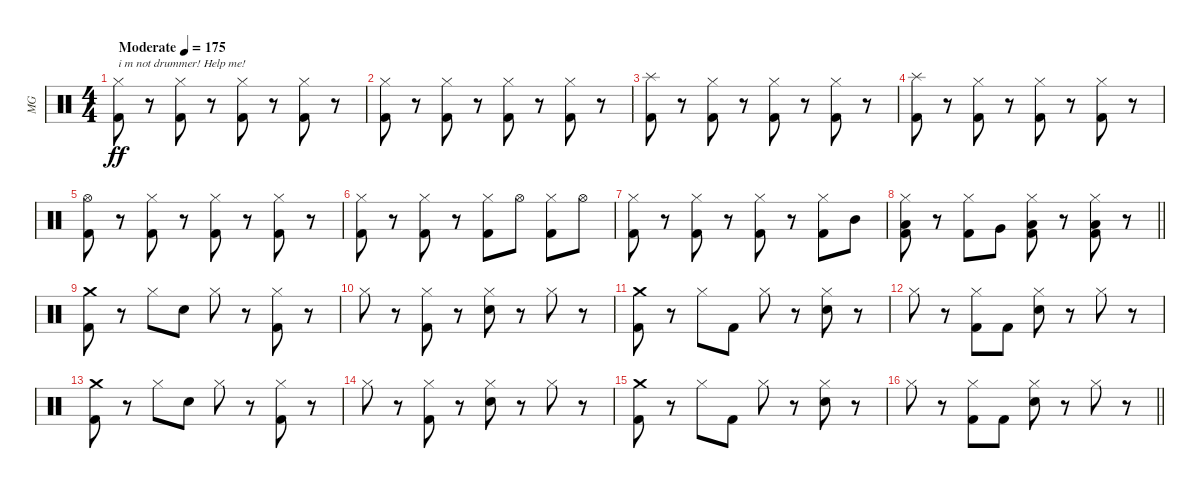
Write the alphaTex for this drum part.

\track ("MG" "MG") {instrument percussion}
\staff {score}
\articulation defaults
\ts (4 4)
\section ("" "")
\tempo (175 "Moderate")
\clef neutral
\ks c
("Hi-Hat (closed)" "Kick (hit) 2").8{txt "i m not drummer! Help me!" dy ff} r.8 ("Hi-Hat (closed)" "Kick (hit) 2").8 r.8 ("Hi-Hat (closed)" "Kick (hit) 2").8 r.8 ("Hi-Hat (closed)" "Kick (hit) 2").8 r.8 |
("Hi-Hat (closed)" "Kick (hit) 2").8 r.8 ("Hi-Hat (closed)" "Kick (hit) 2").8 r.8 ("Hi-Hat (closed)" "Kick (hit) 2").8 r.8 ("Hi-Hat (closed)" "Kick (hit) 2").8 r.8 |
("Splash (hit)" "Kick (hit) 2").8 r.8 ("Hi-Hat (closed)" "Kick (hit) 2").8 r.8 ("Hi-Hat (closed)" "Kick (hit) 2").8 r.8 ("Hi-Hat (closed)" "Kick (hit) 2").8 r.8 |
("Splash (hit)" "Kick (hit) 2").8 r.8 ("Hi-Hat (closed)" "Kick (hit) 2").8 r.8 ("Hi-Hat (closed)" "Kick (hit) 2").8 r.8 ("Hi-Hat (closed)" "Kick (hit) 2").8 r.8 |
("Hi-Hat (open)" "Kick (hit) 2").8 r.8 ("Hi-Hat (closed)" "Kick (hit) 2").8 r.8 ("Hi-Hat (closed)" "Kick (hit) 2").8 r.8 ("Hi-Hat (closed)" "Kick (hit) 2").8 r.8 |
("Hi-Hat (closed)" "Kick (hit) 2").8 r.8 ("Hi-Hat (closed)" "Kick (hit) 2").8 r.8 ("Hi-Hat (closed)" "Kick (hit) 2").8 "Hi-Hat (open)".8 ("Hi-Hat (closed)" "Kick (hit) 2").8 "Hi-Hat (open)".8 |
("Hi-Hat (closed)" "Kick (hit) 2").8 r.8 ("Hi-Hat (closed)" "Kick (hit) 2").8 r.8 ("Hi-Hat (closed)" "Kick (hit) 2").8 r.8 ("Hi-Hat (closed)" "Kick (hit) 2").8 "Mid Tom (hit)".8 |
\barLineRight lightlight
("Hi-Hat (closed)" "Low Tom (hit)" "Kick (hit) 2").8 r.8 ("Hi-Hat (closed)" "Kick (hit) 2").8 "Very Low Tom (hit)".8 ("Hi-Hat (closed)" "Low Tom (hit)" "Kick (hit) 2").8 r.8 ("Hi-Hat (closed)" "Low Tom (hit)" "Kick (hit) 2").8 r.8 |
\section ("" "")
("Crash medium (hit)" "Kick (hit) 2").8 r.8 "Hi-Hat (closed)".8 "Electric Snare (hit)".8 "Hi-Hat (closed)".8 r.8 ("Hi-Hat (closed)" "Kick (hit) 2").8 r.8 |
"Hi-Hat (closed)".8 r.8 ("Hi-Hat (closed)" "Kick (hit) 2").8 r.8 ("Hi-Hat (closed)" "Electric Snare (hit)").8 r.8 "Hi-Hat (closed)".8 r.8 |
("Crash medium (hit)" "Kick (hit) 2").8 r.8 "Hi-Hat (closed)".8 "Kick (hit) 2".8 "Hi-Hat (closed)".8 r.8 ("Hi-Hat (closed)" "Electric Snare (hit)").8 r.8 |
"Hi-Hat (closed)".8 r.8 ("Hi-Hat (closed)" "Kick (hit) 2").8 "Kick (hit) 2".8 ("Hi-Hat (closed)" "Electric Snare (hit)").8 r.8 "Hi-Hat (closed)".8 r.8 |
("Crash medium (hit)" "Kick (hit) 2").8 r.8 "Hi-Hat (closed)".8 "Electric Snare (hit)".8 "Hi-Hat (closed)".8 r.8 ("Hi-Hat (closed)" "Kick (hit) 2").8 r.8 |
"Hi-Hat (closed)".8 r.8 ("Hi-Hat (closed)" "Kick (hit) 2").8 r.8 ("Hi-Hat (closed)" "Electric Snare (hit)").8 r.8 "Hi-Hat (closed)".8 r.8 |
("Crash medium (hit)" "Kick (hit) 2").8 r.8 "Hi-Hat (closed)".8 "Kick (hit) 2".8 "Hi-Hat (closed)".8 r.8 ("Hi-Hat (closed)" "Electric Snare (hit)").8 r.8 |
\barLineRight lightlight "Hi-Hat (closed)".8
r.8 ("Hi-Hat (closed)" "Kick (hit) 2").8 "Kick (hit) 2".8 ("Hi-Hat (closed)" "Electric Snare (hit)").8 r.8 "Hi-Hat (closed)".8 r.8
